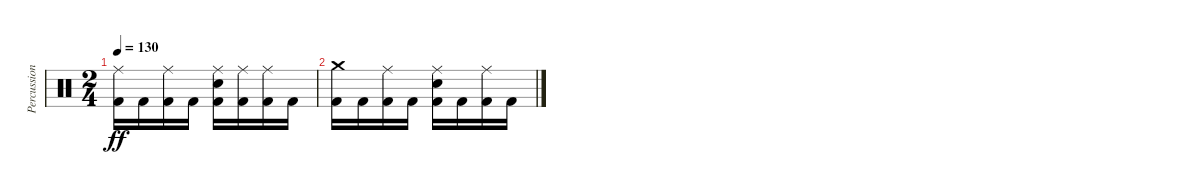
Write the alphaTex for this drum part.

\track ("Percussion" "Percussion") {instrument percussion}
\staff {score}
\articulation defaults
\ts (2 4)
\tempo 130
\clef neutral
\ks c
("Ride (middle)" "Kick (hit) 2").16{dy ff} "Kick (hit) 2".16 ("Ride (middle)" "Kick (hit) 2").16 "Kick (hit) 2".16 ("Ride (middle)" "Snare (hit) 2" "Kick (hit) 2").16 ("Ride (middle)" "Kick (hit) 2").16 ("Ride (middle)" "Kick (hit) 2").16 "Kick (hit) 2".16 |
("Crash medium (hit)" "Kick (hit) 2").16 "Kick (hit) 2".16 ("Ride (middle)" "Kick (hit) 2").16 "Kick (hit) 2".16 ("Ride (middle)" "Snare (hit) 2" "Kick (hit) 2").16 "Kick (hit) 2".16 ("Ride (middle)" "Kick (hit) 2").16 "Kick (hit) 2".16
